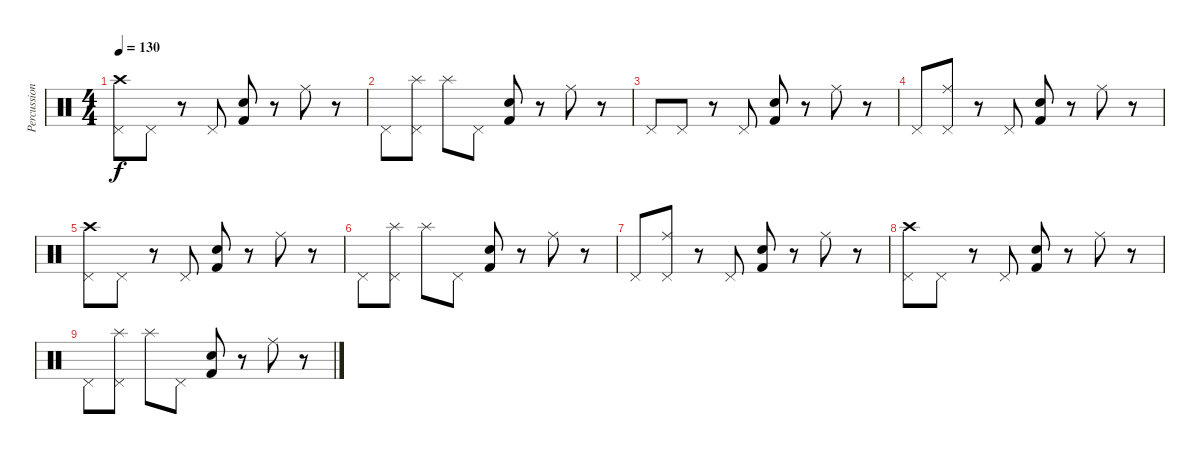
\track ("Percussions" "Percussion") {instrument percussion}
\staff {score}
\articulation defaults
\ts (4 4)
\tempo 130
\clef neutral
\ks c
("Crash high (hit)" "Pedal Hi-Hat (hit)").8{dy f} "Pedal Hi-Hat (hit)".8 r.8 "Pedal Hi-Hat (hit)".8 ("Kick (hit) 2" "Electric Snare (hit)").8 r.8 "Ride (middle)".8 r.8 |
"Pedal Hi-Hat (hit)".8 ("Splash (hit)" "Pedal Hi-Hat (hit)").8 "Splash (hit)".8 "Pedal Hi-Hat (hit)".8 ("Kick (hit) 2" "Electric Snare (hit)").8 r.8 "Ride (middle)".8 r.8 |
"Pedal Hi-Hat (hit)".8 "Pedal Hi-Hat (hit)".8 r.8 "Pedal Hi-Hat (hit)".8 ("Kick (hit) 2" "Electric Snare (hit)").8 r.8 "Ride (middle)".8 r.8 |
"Pedal Hi-Hat (hit)".8 ("Ride (middle)" "Pedal Hi-Hat (hit)").8 r.8 "Pedal Hi-Hat (hit)".8 ("Kick (hit) 2" "Electric Snare (hit)").8 r.8 "Ride (middle)".8 r.8 |
("Crash high (hit)" "Pedal Hi-Hat (hit)").8 "Pedal Hi-Hat (hit)".8 r.8 "Pedal Hi-Hat (hit)".8 ("Kick (hit) 2" "Electric Snare (hit)").8 r.8 "Ride (middle)".8 r.8 |
"Pedal Hi-Hat (hit)".8 ("Splash (hit)" "Pedal Hi-Hat (hit)").8 "Splash (hit)".8 "Pedal Hi-Hat (hit)".8 ("Kick (hit) 2" "Electric Snare (hit)").8 r.8 "Ride (middle)".8 r.8 |
"Pedal Hi-Hat (hit)".8 ("Ride (middle)" "Pedal Hi-Hat (hit)").8 r.8 "Pedal Hi-Hat (hit)".8 ("Kick (hit) 2" "Electric Snare (hit)").8 r.8 "Ride (middle)".8 r.8 |
("Crash high (hit)" "Pedal Hi-Hat (hit)").8 "Pedal Hi-Hat (hit)".8 r.8 "Pedal Hi-Hat (hit)".8 ("Kick (hit) 2" "Electric Snare (hit)").8 r.8 "Ride (middle)".8 r.8 |
"Pedal Hi-Hat (hit)".8 ("Splash (hit)" "Pedal Hi-Hat (hit)").8 "Splash (hit)".8 "Pedal Hi-Hat (hit)".8 ("Kick (hit) 2" "Electric Snare (hit)").8 r.8 "Ride (middle)".8 r.8
